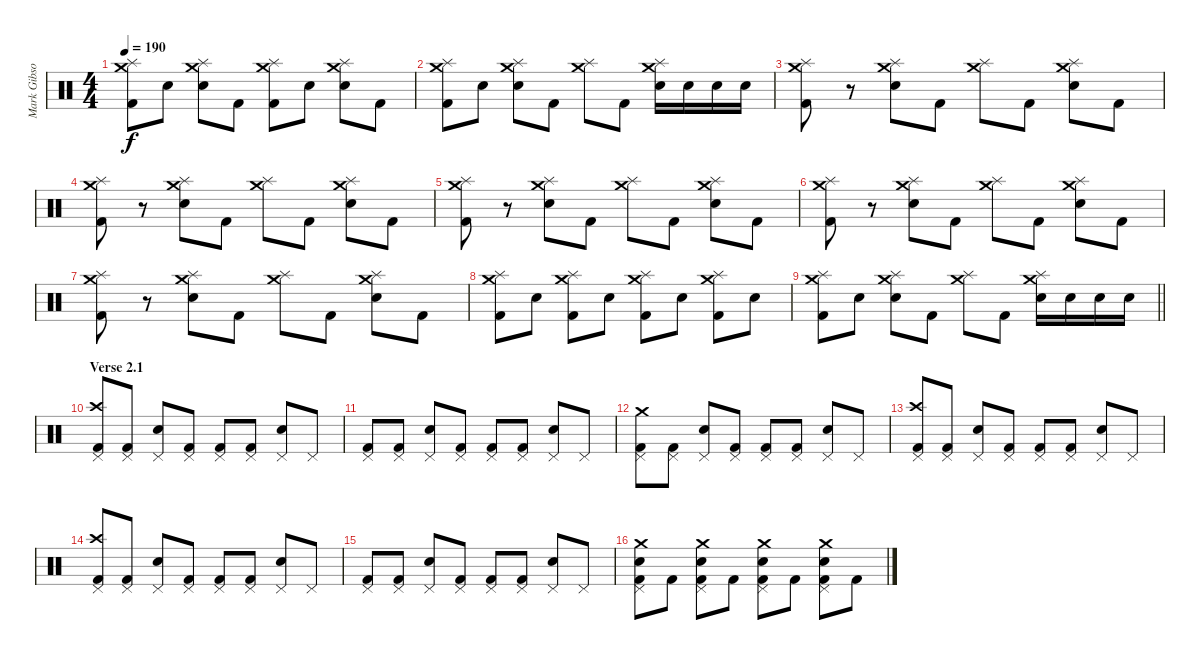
\track ("Mark Gibson" "Mark Gibso") {instrument percussion}
\staff {score}
\articulation defaults
\ts (4 4)
\tempo 190
\clef neutral
\ks c
("Crash medium (hit)" "Splash (hit)" "Kick (hit) 2").8{dy f} "Electric Snare (hit)".8 ("Crash medium (hit)" "Splash (hit)" "Electric Snare (hit)").8 "Kick (hit) 2".8 ("Crash medium (hit)" "Splash (hit)" "Kick (hit) 2").8 "Electric Snare (hit)".8 ("Crash medium (hit)" "Splash (hit)" "Electric Snare (hit)").8 "Kick (hit) 2".8 |
("Crash medium (hit)" "Splash (hit)" "Kick (hit) 2").8 "Electric Snare (hit)".8 ("Crash medium (hit)" "Splash (hit)" "Electric Snare (hit)").8 "Kick (hit) 2".8 ("Crash medium (hit)" "Splash (hit)").8 "Kick (hit) 2".8 ("Crash medium (hit)" "Splash (hit)" "Electric Snare (hit)").16 "Electric Snare (hit)".16 "Electric Snare (hit)".16 "Electric Snare (hit)".16 |
("Crash medium (hit)" "Splash (hit)" "Kick (hit) 2").8 r.8 ("Crash medium (hit)" "Splash (hit)" "Electric Snare (hit)").8 "Kick (hit) 2".8 ("Crash medium (hit)" "Splash (hit)").8 "Kick (hit) 2".8 ("Crash medium (hit)" "Splash (hit)" "Electric Snare (hit)").8 "Kick (hit) 2".8 |
("Crash medium (hit)" "Splash (hit)" "Kick (hit) 2").8 r.8 ("Crash medium (hit)" "Splash (hit)" "Electric Snare (hit)").8 "Kick (hit) 2".8 ("Crash medium (hit)" "Splash (hit)").8 "Kick (hit) 2".8 ("Crash medium (hit)" "Splash (hit)" "Electric Snare (hit)").8 "Kick (hit) 2".8 |
("Crash medium (hit)" "Splash (hit)" "Kick (hit) 2").8 r.8 ("Crash medium (hit)" "Splash (hit)" "Electric Snare (hit)").8 "Kick (hit) 2".8 ("Crash medium (hit)" "Splash (hit)").8 "Kick (hit) 2".8 ("Crash medium (hit)" "Splash (hit)" "Electric Snare (hit)").8 "Kick (hit) 2".8 |
("Crash medium (hit)" "Splash (hit)" "Kick (hit) 2").8 r.8 ("Crash medium (hit)" "Splash (hit)" "Electric Snare (hit)").8 "Kick (hit) 2".8 ("Crash medium (hit)" "Splash (hit)").8 "Kick (hit) 2".8 ("Crash medium (hit)" "Splash (hit)" "Electric Snare (hit)").8 "Kick (hit) 2".8 |
("Crash medium (hit)" "Splash (hit)" "Kick (hit) 2").8 r.8 ("Crash medium (hit)" "Splash (hit)" "Electric Snare (hit)").8 "Kick (hit) 2".8 ("Crash medium (hit)" "Splash (hit)").8 "Kick (hit) 2".8 ("Crash medium (hit)" "Splash (hit)" "Electric Snare (hit)").8 "Kick (hit) 2".8 |
("Crash medium (hit)" "Splash (hit)" "Kick (hit) 2").8 "Electric Snare (hit)".8 ("Crash medium (hit)" "Splash (hit)" "Kick (hit) 2").8 "Electric Snare (hit)".8 ("Crash medium (hit)" "Splash (hit)" "Kick (hit) 2").8 "Electric Snare (hit)".8 ("Crash medium (hit)" "Splash (hit)" "Kick (hit) 2").8 "Electric Snare (hit)".8 |
\barLineRight lightlight
("Crash medium (hit)" "Splash (hit)" "Kick (hit) 2").8 "Electric Snare (hit)".8 ("Crash medium (hit)" "Splash (hit)" "Electric Snare (hit)").8 "Kick (hit) 2".8 ("Crash medium (hit)" "Splash (hit)").8 "Kick (hit) 2".8 ("Crash medium (hit)" "Splash (hit)" "Electric Snare (hit)").16 "Electric Snare (hit)".16 "Electric Snare (hit)".16 "Electric Snare (hit)".16 |
\section ("" "Verse 2.1")
("Crash high (hit)" "Pedal Hi-Hat (hit)" "Kick (hit) 2").8 ("Pedal Hi-Hat (hit)" "Kick (hit) 2").8 ("Pedal Hi-Hat (hit)" "Electric Snare (hit)").8 ("Pedal Hi-Hat (hit)" "Kick (hit) 2").8 ("Pedal Hi-Hat (hit)" "Kick (hit) 2").8 ("Pedal Hi-Hat (hit)" "Kick (hit) 2").8 ("Pedal Hi-Hat (hit)" "Electric Snare (hit)").8 "Pedal Hi-Hat (hit)".8 |
("Pedal Hi-Hat (hit)" "Kick (hit) 2").8 ("Pedal Hi-Hat (hit)" "Kick (hit) 2").8 ("Pedal Hi-Hat (hit)" "Electric Snare (hit)").8 ("Pedal Hi-Hat (hit)" "Kick (hit) 2").8 ("Pedal Hi-Hat (hit)" "Kick (hit) 2").8 ("Pedal Hi-Hat (hit)" "Kick (hit) 2").8 ("Pedal Hi-Hat (hit)" "Electric Snare (hit)").8 "Pedal Hi-Hat (hit)".8 |
("Crash medium (hit)" "Pedal Hi-Hat (hit)" "Kick (hit) 2").8 ("Pedal Hi-Hat (hit)" "Kick (hit) 2").8 ("Pedal Hi-Hat (hit)" "Electric Snare (hit)").8 ("Pedal Hi-Hat (hit)" "Kick (hit) 2").8 ("Pedal Hi-Hat (hit)" "Kick (hit) 2").8 ("Pedal Hi-Hat (hit)" "Kick (hit) 2").8 ("Pedal Hi-Hat (hit)" "Electric Snare (hit)").8 "Pedal Hi-Hat (hit)".8 |
("Crash high (hit)" "Pedal Hi-Hat (hit)" "Kick (hit) 2").8 ("Pedal Hi-Hat (hit)" "Kick (hit) 2").8 ("Pedal Hi-Hat (hit)" "Electric Snare (hit)").8 ("Pedal Hi-Hat (hit)" "Kick (hit) 2").8 ("Pedal Hi-Hat (hit)" "Kick (hit) 2").8 ("Pedal Hi-Hat (hit)" "Kick (hit) 2").8 ("Pedal Hi-Hat (hit)" "Electric Snare (hit)").8 "Pedal Hi-Hat (hit)".8 |
("Crash high (hit)" "Pedal Hi-Hat (hit)" "Kick (hit) 2").8 ("Pedal Hi-Hat (hit)" "Kick (hit) 2").8 ("Pedal Hi-Hat (hit)" "Electric Snare (hit)").8 ("Pedal Hi-Hat (hit)" "Kick (hit) 2").8 ("Pedal Hi-Hat (hit)" "Kick (hit) 2").8 ("Pedal Hi-Hat (hit)" "Kick (hit) 2").8 ("Pedal Hi-Hat (hit)" "Electric Snare (hit)").8 "Pedal Hi-Hat (hit)".8 |
("Pedal Hi-Hat (hit)" "Kick (hit) 2").8 ("Pedal Hi-Hat (hit)" "Kick (hit) 2").8 ("Pedal Hi-Hat (hit)" "Electric Snare (hit)").8 ("Pedal Hi-Hat (hit)" "Kick (hit) 2").8 ("Pedal Hi-Hat (hit)" "Kick (hit) 2").8 ("Pedal Hi-Hat (hit)" "Kick (hit) 2").8 ("Pedal Hi-Hat (hit)" "Electric Snare (hit)").8 "Pedal Hi-Hat (hit)".8 |
("Crash medium (hit)" "Pedal Hi-Hat (hit)" "Electric Snare (hit)" "Kick (hit) 2").8 "Kick (hit) 2".8 ("Crash medium (hit)" "Pedal Hi-Hat (hit)" "Electric Snare (hit)" "Kick (hit) 2").8 "Kick (hit) 2".8 ("Crash medium (hit)" "Pedal Hi-Hat (hit)" "Electric Snare (hit)" "Kick (hit) 2").8 "Kick (hit) 2".8 ("Crash medium (hit)" "Pedal Hi-Hat (hit)" "Electric Snare (hit)" "Kick (hit) 2").8 "Kick (hit) 2".8
